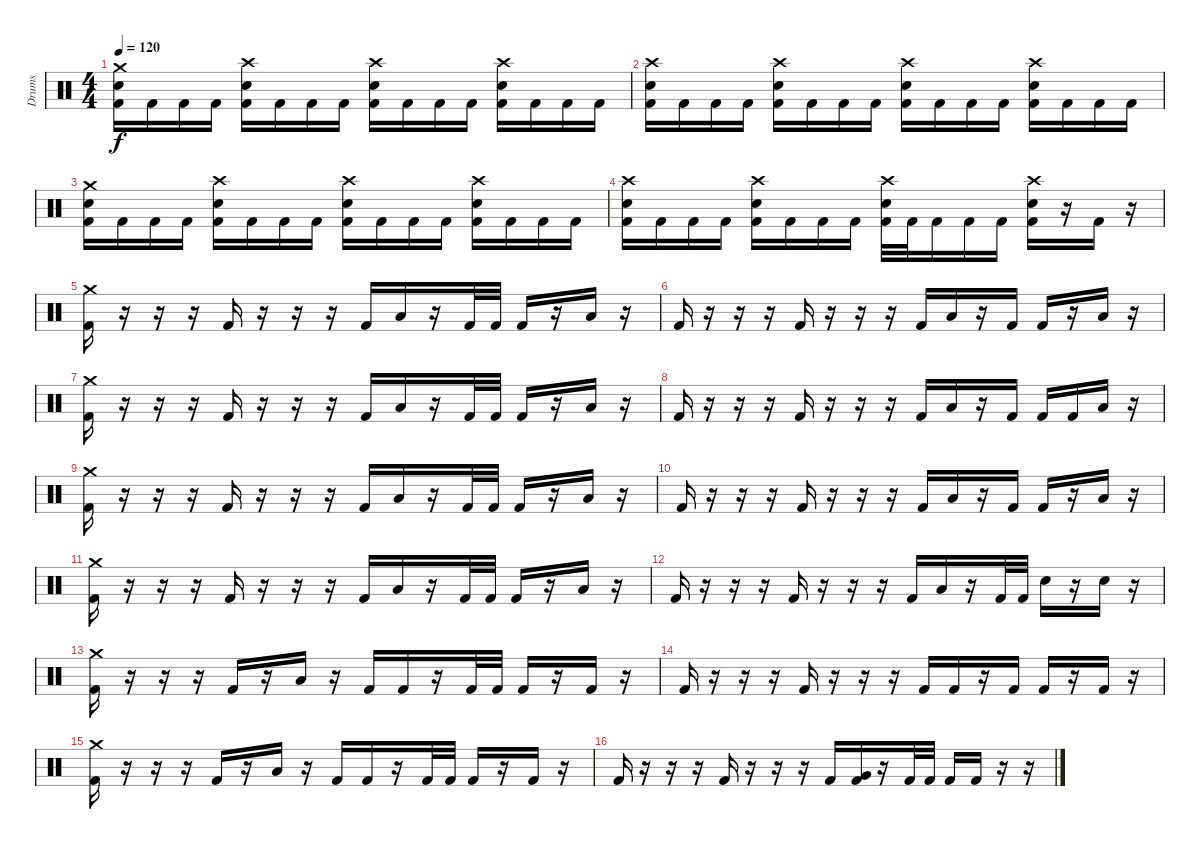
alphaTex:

\track ("Drums" "Drums") {instrument percussion}
\staff {score}
\articulation defaults
\ts (4 4)
\tempo 120
\clef neutral
\ks c
("Crash medium (hit)" "Snare (hit) 2" "Kick (hit) 2").16{dy f} "Kick (hit) 2".16 "Kick (hit) 2".16 "Kick (hit) 2".16 ("Crash high (hit)" "Snare (hit) 2" "Kick (hit) 2").16 "Kick (hit) 2".16 "Kick (hit) 2".16 "Kick (hit) 2".16 ("Crash high (hit)" "Snare (hit) 2" "Kick (hit) 2").16 "Kick (hit) 2".16 "Kick (hit) 2".16 "Kick (hit) 2".16 ("Crash high (hit)" "Snare (hit) 2" "Kick (hit) 2").16 "Kick (hit) 2".16 "Kick (hit) 2".16 "Kick (hit) 2".16 |
("Crash high (hit)" "Snare (hit) 2" "Kick (hit) 2").16 "Kick (hit) 2".16 "Kick (hit) 2".16 "Kick (hit) 2".16 ("Crash high (hit)" "Snare (hit) 2" "Kick (hit) 2").16 "Kick (hit) 2".16 "Kick (hit) 2".16 "Kick (hit) 2".16 ("Crash high (hit)" "Snare (hit) 2" "Kick (hit) 2").16 "Kick (hit) 2".16 "Kick (hit) 2".16 "Kick (hit) 2".16 ("Crash high (hit)" "Snare (hit) 2" "Kick (hit) 2").16 "Kick (hit) 2".16 "Kick (hit) 2".16 "Kick (hit) 2".16 |
("Crash medium (hit)" "Snare (hit) 2" "Kick (hit) 2").16 "Kick (hit) 2".16 "Kick (hit) 2".16 "Kick (hit) 2".16 ("Crash high (hit)" "Snare (hit) 2" "Kick (hit) 2").16 "Kick (hit) 2".16 "Kick (hit) 2".16 "Kick (hit) 2".16 ("Crash high (hit)" "Snare (hit) 2" "Kick (hit) 2").16 "Kick (hit) 2".16 "Kick (hit) 2".16 "Kick (hit) 2".16 ("Crash high (hit)" "Snare (hit) 2" "Kick (hit) 2").16 "Kick (hit) 2".16 "Kick (hit) 2".16 "Kick (hit) 2".16 |
("Crash high (hit)" "Snare (hit) 2" "Kick (hit) 2").16 "Kick (hit) 2".16 "Kick (hit) 2".16 "Kick (hit) 2".16 ("Crash high (hit)" "Snare (hit) 2" "Kick (hit) 2").16 "Kick (hit) 2".16 "Kick (hit) 2".16 "Kick (hit) 2".16 ("Crash high (hit)" "Snare (hit) 2" "Kick (hit) 2").32 "Kick (hit) 2".32 "Kick (hit) 2".16 "Kick (hit) 2".16 "Kick (hit) 2".16 ("Crash high (hit)" "Snare (hit) 2" "Kick (hit) 2").16 r.16 "Kick (hit) 2".16 r.16 |
("Crash medium (hit)" "Kick (hit) 2").16 r.16 r.16 r.16 "Kick (hit) 2".16 r.16 r.16 r.16 "Kick (hit) 2".16 "Low Tom (hit)".16 r.16 "Kick (hit) 2".32 "Kick (hit) 2".32 "Kick (hit) 2".16 r.16 "Low Tom (hit)".16 r.16 |
"Kick (hit) 2".16 r.16 r.16 r.16 "Kick (hit) 2".16 r.16 r.16 r.16 "Kick (hit) 2".16 "Low Tom (hit)".16 r.16 "Kick (hit) 2".16 "Kick (hit) 2".16 r.16 "Low Tom (hit)".16 r.16 |
("Crash medium (hit)" "Kick (hit) 2").16 r.16 r.16 r.16 "Kick (hit) 2".16 r.16 r.16 r.16 "Kick (hit) 2".16 "Low Tom (hit)".16 r.16 "Kick (hit) 2".32 "Kick (hit) 2".32 "Kick (hit) 2".16 r.16 "Low Tom (hit)".16 r.16 |
"Kick (hit) 2".16 r.16 r.16 r.16 "Kick (hit) 2".16 r.16 r.16 r.16 "Kick (hit) 2".16 "Low Tom (hit)".16 r.16 "Kick (hit) 2".16 "Kick (hit) 2".16 "Kick (hit) 2".16 "Low Tom (hit)".16 r.16 |
("Crash medium (hit)" "Kick (hit) 2").16 r.16 r.16 r.16 "Kick (hit) 2".16 r.16 r.16 r.16 "Kick (hit) 2".16 "Low Tom (hit)".16 r.16 "Kick (hit) 2".32 "Kick (hit) 2".32 "Kick (hit) 2".16 r.16 "Low Tom (hit)".16 r.16 |
"Kick (hit) 2".16 r.16 r.16 r.16 "Kick (hit) 2".16 r.16 r.16 r.16 "Kick (hit) 2".16 "Low Tom (hit)".16 r.16 "Kick (hit) 2".16 "Kick (hit) 2".16 r.16 "Low Tom (hit)".16 r.16 |
("Crash medium (hit)" "Kick (hit) 2").16 r.16 r.16 r.16 "Kick (hit) 2".16 r.16 r.16 r.16 "Kick (hit) 2".16 "Low Tom (hit)".16 r.16 "Kick (hit) 2".32 "Kick (hit) 2".32 "Kick (hit) 2".16 r.16 "Low Tom (hit)".16 r.16 |
"Kick (hit) 2".16 r.16 r.16 r.16 "Kick (hit) 2".16 r.16 r.16 r.16 "Kick (hit) 2".16 "Low Tom (hit)".16 r.16 "Kick (hit) 2".32 "Kick (hit) 2".32 "Snare (hit) 2".16 r.16 "Snare (hit) 2".16 r.16 |
("Crash medium (hit)" "Kick (hit) 2").16 r.16 r.16 r.16 "Kick (hit) 2".16 r.16 "Low Tom (hit)".16 r.16 "Kick (hit) 2".16 "Kick (hit) 2".16 r.16 "Kick (hit) 2".32 "Kick (hit) 2".32 "Kick (hit) 2".16 r.16 "Kick (hit) 2".16 r.16 |
"Kick (hit) 2".16 r.16 r.16 r.16 "Kick (hit) 2".16 r.16 r.16 r.16 "Kick (hit) 2".16 "Kick (hit) 2".16 r.16 "Kick (hit) 2".16 "Kick (hit) 2".16 r.16 "Kick (hit) 2".16 r.16 |
("Crash medium (hit)" "Kick (hit) 2").16 r.16 r.16 r.16 "Kick (hit) 2".16 r.16 "Low Tom (hit)".16 r.16 "Kick (hit) 2".16 "Kick (hit) 2".16 r.16 "Kick (hit) 2".32 "Kick (hit) 2".32 "Kick (hit) 2".16 r.16 "Kick (hit) 2".16 r.16 |
"Kick (hit) 2".16 r.16 r.16 r.16 "Kick (hit) 2".16 r.16 r.16 r.16 "Kick (hit) 2".16 ("Very Low Tom (hit)" "Kick (hit) 2").16 r.16 "Kick (hit) 2".32 "Kick (hit) 2".32 "Kick (hit) 2".16 "Kick (hit) 2".16 r.16 r.16
